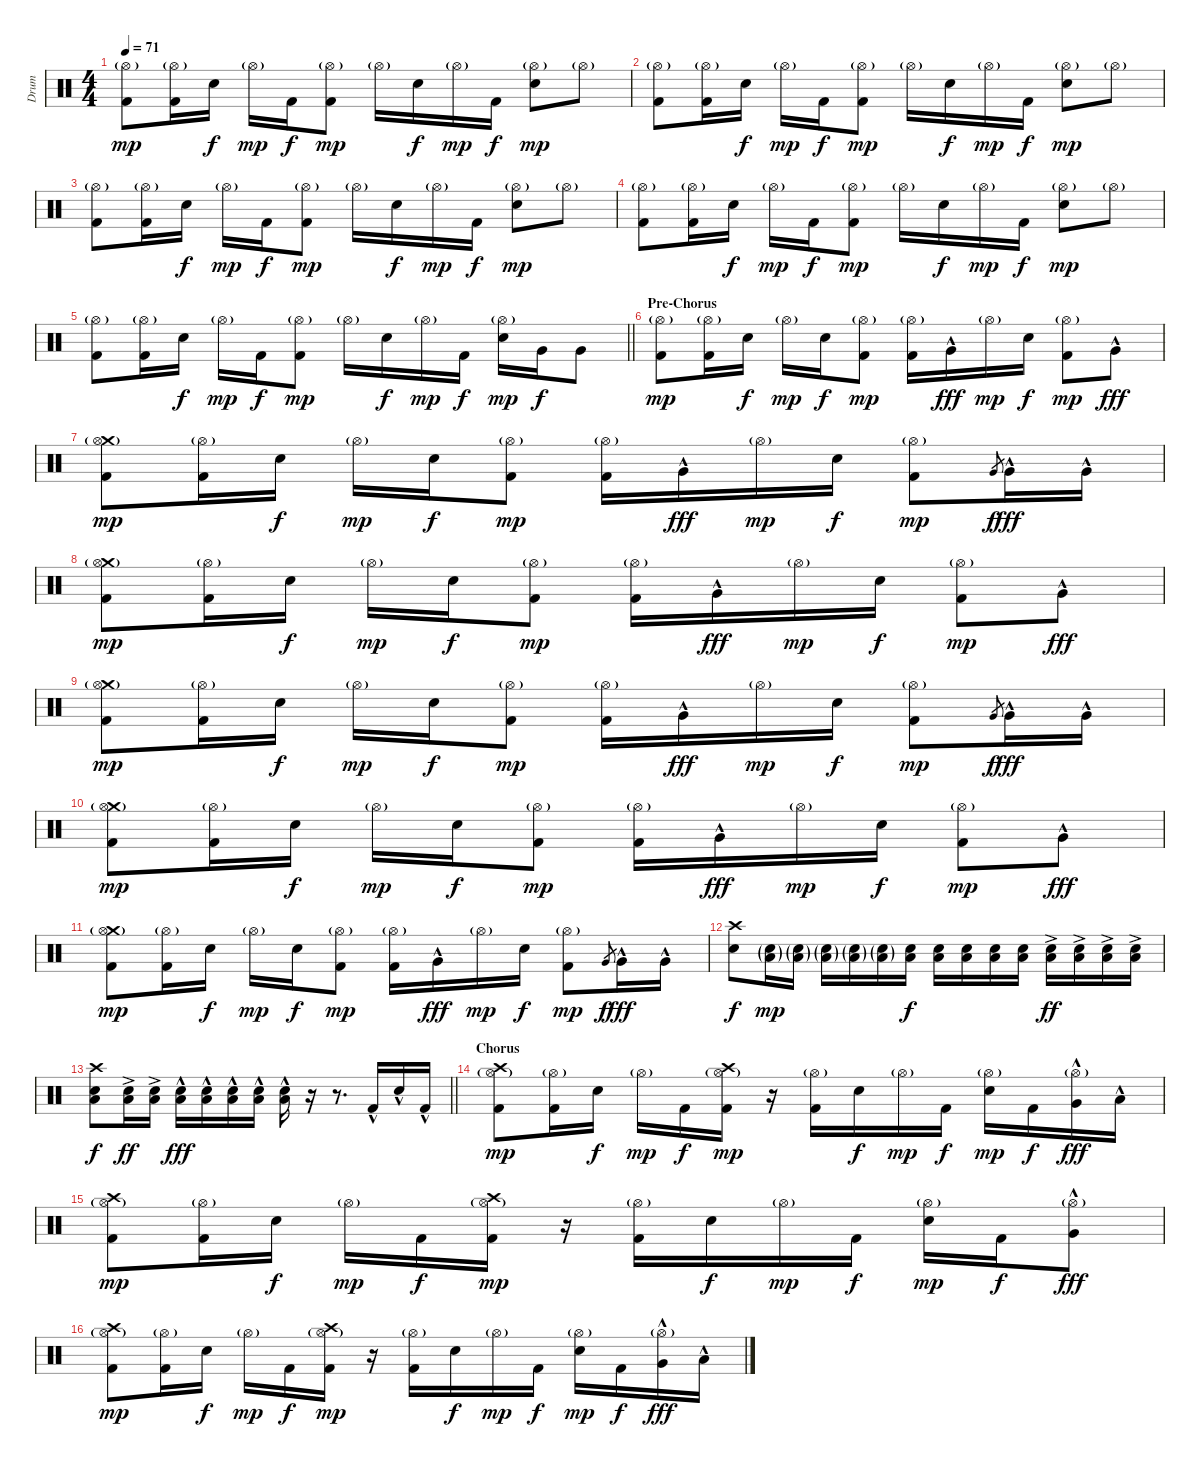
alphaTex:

\track ("Drum" "Drum") {instrument percussion}
\staff {score}
\articulation defaults
\ts (4 4)
\tempo 71
\clef neutral
\ks c
("Hi-Hat (open)"{g} "Kick (hit) 2").8{dy mp} ("Hi-Hat (open)"{g} "Kick (hit) 2").16 "Electric Snare (hit)".16{dy f} "Hi-Hat (open)"{g}.16{dy mp} "Kick (hit) 2".16{dy f} ("Hi-Hat (open)"{g} "Kick (hit) 2").8{dy mp} "Hi-Hat (open)"{g}.16 "Electric Snare (hit)".16{dy f} "Hi-Hat (open)"{g}.16{dy mp} "Kick (hit) 2".16{dy f} ("Hi-Hat (open)"{g} "Electric Snare (hit)").8{dy mp} "Hi-Hat (open)"{g}.8 |
("Hi-Hat (open)"{g} "Kick (hit) 2").8 ("Hi-Hat (open)"{g} "Kick (hit) 2").16 "Electric Snare (hit)".16{dy f} "Hi-Hat (open)"{g}.16{dy mp} "Kick (hit) 2".16{dy f} ("Hi-Hat (open)"{g} "Kick (hit) 2").8{dy mp} "Hi-Hat (open)"{g}.16 "Electric Snare (hit)".16{dy f} "Hi-Hat (open)"{g}.16{dy mp} "Kick (hit) 2".16{dy f} ("Hi-Hat (open)"{g} "Electric Snare (hit)").8{dy mp} "Hi-Hat (open)"{g}.8 |
("Hi-Hat (open)"{g} "Kick (hit) 2").8 ("Hi-Hat (open)"{g} "Kick (hit) 2").16 "Electric Snare (hit)".16{dy f} "Hi-Hat (open)"{g}.16{dy mp} "Kick (hit) 2".16{dy f} ("Hi-Hat (open)"{g} "Kick (hit) 2").8{dy mp} "Hi-Hat (open)"{g}.16 "Electric Snare (hit)".16{dy f} "Hi-Hat (open)"{g}.16{dy mp} "Kick (hit) 2".16{dy f} ("Hi-Hat (open)"{g} "Electric Snare (hit)").8{dy mp} "Hi-Hat (open)"{g}.8 |
("Hi-Hat (open)"{g} "Kick (hit) 2").8 ("Hi-Hat (open)"{g} "Kick (hit) 2").16 "Electric Snare (hit)".16{dy f} "Hi-Hat (open)"{g}.16{dy mp} "Kick (hit) 2".16{dy f} ("Hi-Hat (open)"{g} "Kick (hit) 2").8{dy mp} "Hi-Hat (open)"{g}.16 "Electric Snare (hit)".16{dy f} "Hi-Hat (open)"{g}.16{dy mp} "Kick (hit) 2".16{dy f} ("Hi-Hat (open)"{g} "Electric Snare (hit)").8{dy mp} "Hi-Hat (open)"{g}.8 |
\barLineRight lightlight
("Hi-Hat (open)"{g} "Kick (hit) 2").8 ("Hi-Hat (open)"{g} "Kick (hit) 2").16 "Electric Snare (hit)".16{dy f} "Hi-Hat (open)"{g}.16{dy mp} "Kick (hit) 2".16{dy f} ("Hi-Hat (open)"{g} "Kick (hit) 2").8{dy mp} "Hi-Hat (open)"{g}.16 "Electric Snare (hit)".16{dy f} "Hi-Hat (open)"{g}.16{dy mp} "Kick (hit) 2".16{dy f} ("Hi-Hat (open)"{g} "Electric Snare (hit)").16{dy mp} "Very Low Tom (hit)".16{dy f} "Very Low Tom (hit)".8 |
\section ("" "Pre-Chorus")
("Hi-Hat (open)"{g} "Kick (hit) 2").8{dy mp} ("Hi-Hat (open)"{g} "Kick (hit) 2").16 "Electric Snare (hit)".16{dy f} "Hi-Hat (open)"{g}.16{dy mp} "Electric Snare (hit)".16{dy f} ("Hi-Hat (open)"{g} "Kick (hit) 2").8{dy mp} ("Hi-Hat (open)"{g} "Kick (hit) 2").16 "Very Low Tom (hit)"{hac}.16{dy fff} "Hi-Hat (open)"{g}.16{dy mp} "Electric Snare (hit)".16{dy f} ("Hi-Hat (open)"{g} "Kick (hit) 2").8{dy mp} "Very Low Tom (hit)"{hac}.8{dy fff} |
("Crash medium (hit)" "Hi-Hat (open)"{g} "Kick (hit) 2").8{dy mp} ("Hi-Hat (open)"{g} "Kick (hit) 2").16 "Electric Snare (hit)".16{dy f} "Hi-Hat (open)"{g}.16{dy mp} "Electric Snare (hit)".16{dy f} ("Hi-Hat (open)"{g} "Kick (hit) 2").8{dy mp} ("Hi-Hat (open)"{g} "Kick (hit) 2").16 "Very Low Tom (hit)"{hac}.16{dy fff} "Hi-Hat (open)"{g}.16{dy mp} "Electric Snare (hit)".16{dy f} ("Hi-Hat (open)"{g} "Kick (hit) 2").8{dy mp} "Very Low Tom (hit)".8{gr dy f} "Very Low Tom (hit)"{hac}.16{dy fff} "Very Low Tom (hit)"{hac}.16 |
("Crash medium (hit)" "Hi-Hat (open)"{g} "Kick (hit) 2").8{dy mp} ("Hi-Hat (open)"{g} "Kick (hit) 2").16 "Electric Snare (hit)".16{dy f} "Hi-Hat (open)"{g}.16{dy mp} "Electric Snare (hit)".16{dy f} ("Hi-Hat (open)"{g} "Kick (hit) 2").8{dy mp} ("Hi-Hat (open)"{g} "Kick (hit) 2").16 "Very Low Tom (hit)"{hac}.16{dy fff} "Hi-Hat (open)"{g}.16{dy mp} "Electric Snare (hit)".16{dy f} ("Hi-Hat (open)"{g} "Kick (hit) 2").8{dy mp} "Very Low Tom (hit)"{hac}.8{dy fff} |
("Crash medium (hit)" "Hi-Hat (open)"{g} "Kick (hit) 2").8{dy mp} ("Hi-Hat (open)"{g} "Kick (hit) 2").16 "Electric Snare (hit)".16{dy f} "Hi-Hat (open)"{g}.16{dy mp} "Electric Snare (hit)".16{dy f} ("Hi-Hat (open)"{g} "Kick (hit) 2").8{dy mp} ("Hi-Hat (open)"{g} "Kick (hit) 2").16 "Very Low Tom (hit)"{hac}.16{dy fff} "Hi-Hat (open)"{g}.16{dy mp} "Electric Snare (hit)".16{dy f} ("Hi-Hat (open)"{g} "Kick (hit) 2").8{dy mp} "Very Low Tom (hit)".8{gr dy f} "Very Low Tom (hit)"{hac}.16{dy fff} "Very Low Tom (hit)"{hac}.16 |
("Crash medium (hit)" "Hi-Hat (open)"{g} "Kick (hit) 2").8{dy mp} ("Hi-Hat (open)"{g} "Kick (hit) 2").16 "Electric Snare (hit)".16{dy f} "Hi-Hat (open)"{g}.16{dy mp} "Electric Snare (hit)".16{dy f} ("Hi-Hat (open)"{g} "Kick (hit) 2").8{dy mp} ("Hi-Hat (open)"{g} "Kick (hit) 2").16 "Very Low Tom (hit)"{hac}.16{dy fff} "Hi-Hat (open)"{g}.16{dy mp} "Electric Snare (hit)".16{dy f} ("Hi-Hat (open)"{g} "Kick (hit) 2").8{dy mp} "Very Low Tom (hit)"{hac}.8{dy fff} |
("Crash medium (hit)" "Hi-Hat (open)"{g} "Kick (hit) 2").8{dy mp} ("Hi-Hat (open)"{g} "Kick (hit) 2").16 "Electric Snare (hit)".16{dy f} "Hi-Hat (open)"{g}.16{dy mp} "Electric Snare (hit)".16{dy f} ("Hi-Hat (open)"{g} "Kick (hit) 2").8{dy mp} ("Hi-Hat (open)"{g} "Kick (hit) 2").16 "Very Low Tom (hit)"{hac}.16{dy fff} "Hi-Hat (open)"{g}.16{dy mp} "Electric Snare (hit)".16{dy f} ("Hi-Hat (open)"{g} "Kick (hit) 2").8{dy mp} "Very Low Tom (hit)".8{gr dy f} "Very Low Tom (hit)"{hac}.16{dy fff} "Very Low Tom (hit)"{hac}.16 |
("Crash high (hit)" "Electric Snare (hit)").8{dy f} ("Low Floor Tom (hit)"{g} "Electric Snare (hit)"{g}).16{dy mp} ("Low Floor Tom (hit)"{g} "Electric Snare (hit)"{g}).16 ("Low Floor Tom (hit)"{g} "Electric Snare (hit)"{g}).16 ("Low Floor Tom (hit)"{g} "Electric Snare (hit)"{g}).16 ("Low Floor Tom (hit)"{g} "Electric Snare (hit)"{g}).16 ("Low Floor Tom (hit)" "Electric Snare (hit)").16{dy f} ("Low Floor Tom (hit)" "Electric Snare (hit)").16 ("Low Floor Tom (hit)" "Electric Snare (hit)").16 ("Low Floor Tom (hit)" "Electric Snare (hit)").16 ("Low Floor Tom (hit)" "Electric Snare (hit)").16 ("Low Floor Tom (hit)"{ac} "Electric Snare (hit)"{ac}).16{dy ff} ("Low Floor Tom (hit)"{ac} "Electric Snare (hit)"{ac}).16 ("Low Floor Tom (hit)"{ac} "Electric Snare (hit)"{ac}).16 ("Low Floor Tom (hit)"{ac} "Electric Snare (hit)"{ac}).16 |
\barLineRight lightlight
("Crash high (hit)" "Low Floor Tom (hit)" "Electric Snare (hit)").8{dy f} ("Low Floor Tom (hit)"{ac} "Electric Snare (hit)"{ac}).16{dy ff} ("Low Floor Tom (hit)"{ac} "Electric Snare (hit)"{ac}).16 ("Low Floor Tom (hit)"{hac} "Electric Snare (hit)"{hac}).16{dy fff} ("Low Floor Tom (hit)"{hac} "Electric Snare (hit)"{hac}).16 ("Low Floor Tom (hit)"{hac} "Electric Snare (hit)"{hac}).16 ("Low Floor Tom (hit)"{hac} "Electric Snare (hit)"{hac}).16 ("Low Floor Tom (hit)"{hac} "Electric Snare (hit)"{hac}).16 r.16 r.8{d} "Kick (hit) 2"{hac}.16 "Electric Snare (hit)"{hac}.16 "Kick (hit) 2"{hac}.16 |
\section ("" "Chorus")
("Crash high (hit)" "Hi-Hat (open)"{g} "Kick (hit) 2").8{dy mp} ("Hi-Hat (open)"{g} "Kick (hit) 2").16 "Electric Snare (hit)".16{dy f} "Hi-Hat (open)"{g}.16{dy mp} "Kick (hit) 2".16{dy f} ("Crash high (hit)" "Hi-Hat (open)"{g} "Kick (hit) 2").16{dy mp} r.16 ("Hi-Hat (open)"{g} "Kick (hit) 2").16 "Electric Snare (hit)".16{dy f} "Hi-Hat (open)"{g}.16{dy mp} "Kick (hit) 2".16{dy f} ("Hi-Hat (open)"{g} "Electric Snare (hit)").16{dy mp} "Kick (hit) 2".16{dy f} ("Hi-Hat (open)"{g} "Very Low Tom (hit)"{hac}).16{dy fff} "Low Floor Tom (hit)"{hac}.16 |
("Crash high (hit)" "Hi-Hat (open)"{g} "Kick (hit) 2").8{dy mp} ("Hi-Hat (open)"{g} "Kick (hit) 2").16 "Electric Snare (hit)".16{dy f} "Hi-Hat (open)"{g}.16{dy mp} "Kick (hit) 2".16{dy f} ("Crash high (hit)" "Hi-Hat (open)"{g} "Kick (hit) 2").16{dy mp} r.16 ("Hi-Hat (open)"{g} "Kick (hit) 2").16 "Electric Snare (hit)".16{dy f} "Hi-Hat (open)"{g}.16{dy mp} "Kick (hit) 2".16{dy f} ("Hi-Hat (open)"{g} "Electric Snare (hit)").16{dy mp} "Kick (hit) 2".16{dy f} ("Hi-Hat (open)"{g} "Very Low Tom (hit)"{hac}).8{dy fff} |
("Crash high (hit)" "Hi-Hat (open)"{g} "Kick (hit) 2").8{dy mp} ("Hi-Hat (open)"{g} "Kick (hit) 2").16 "Electric Snare (hit)".16{dy f} "Hi-Hat (open)"{g}.16{dy mp} "Kick (hit) 2".16{dy f} ("Crash high (hit)" "Hi-Hat (open)"{g} "Kick (hit) 2").16{dy mp} r.16 ("Hi-Hat (open)"{g} "Kick (hit) 2").16 "Electric Snare (hit)".16{dy f} "Hi-Hat (open)"{g}.16{dy mp} "Kick (hit) 2".16{dy f} ("Hi-Hat (open)"{g} "Electric Snare (hit)").16{dy mp} "Kick (hit) 2".16{dy f} ("Hi-Hat (open)"{g} "Very Low Tom (hit)"{hac}).16{dy fff} "Low Floor Tom (hit)"{hac}.16
